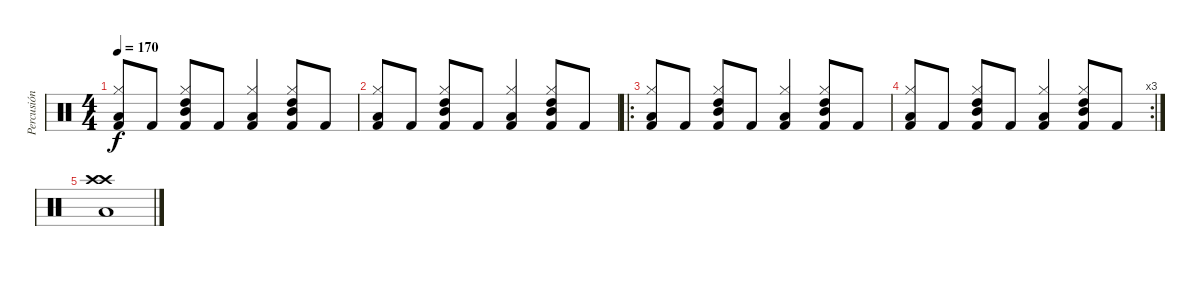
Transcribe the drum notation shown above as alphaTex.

\track ("Percusión" "Percusión") {instrument percussion}
\staff {score}
\articulation defaults
\ts (4 4)
\tempo 170
\clef neutral
\ks c
("Kick (hit) 2" "Hi-Hat (closed)" "Low Floor Tom (hit)").8{dy f} "Kick (hit) 2".8 ("Kick (hit) 2" "Hi-Hat (closed)" "Mid Tom (hit)" "High Tom (hit)").8 "Kick (hit) 2".8 ("Kick (hit) 2" "Hi-Hat (closed)" "Low Floor Tom (hit)").4 ("Kick (hit) 2" "Hi-Hat (closed)" "Mid Tom (hit)" "High Tom (hit)").8 "Kick (hit) 2".8 |
("Kick (hit) 2" "Hi-Hat (closed)" "Low Floor Tom (hit)").8 "Kick (hit) 2".8 ("Kick (hit) 2" "Hi-Hat (closed)" "Mid Tom (hit)" "High Tom (hit)").8 "Kick (hit) 2".8 ("Kick (hit) 2" "Hi-Hat (closed)" "Low Floor Tom (hit)").4 ("Kick (hit) 2" "Hi-Hat (closed)" "Mid Tom (hit)" "High Tom (hit)").8 "Kick (hit) 2".8 |
\ro
("Kick (hit) 2" "Hi-Hat (closed)" "Low Floor Tom (hit)").8 "Kick (hit) 2".8 ("Kick (hit) 2" "Hi-Hat (closed)" "Mid Tom (hit)" "High Tom (hit)").8 "Kick (hit) 2".8 ("Kick (hit) 2" "Hi-Hat (closed)" "Low Floor Tom (hit)").4 ("Kick (hit) 2" "Hi-Hat (closed)" "Mid Tom (hit)" "High Tom (hit)").8 "Kick (hit) 2".8 |
\rc 3
("Kick (hit) 2" "Hi-Hat (closed)" "Low Floor Tom (hit)").8 "Kick (hit) 2".8 ("Kick (hit) 2" "Hi-Hat (closed)" "Mid Tom (hit)" "High Tom (hit)").8 "Kick (hit) 2".8 ("Kick (hit) 2" "Hi-Hat (closed)" "Low Floor Tom (hit)").4 ("Kick (hit) 2" "Hi-Hat (closed)" "Mid Tom (hit)" "High Tom (hit)").8 "Kick (hit) 2".8 |
("Crash high (hit)" "Low Tom (hit)" "Crash high (hit)").1
